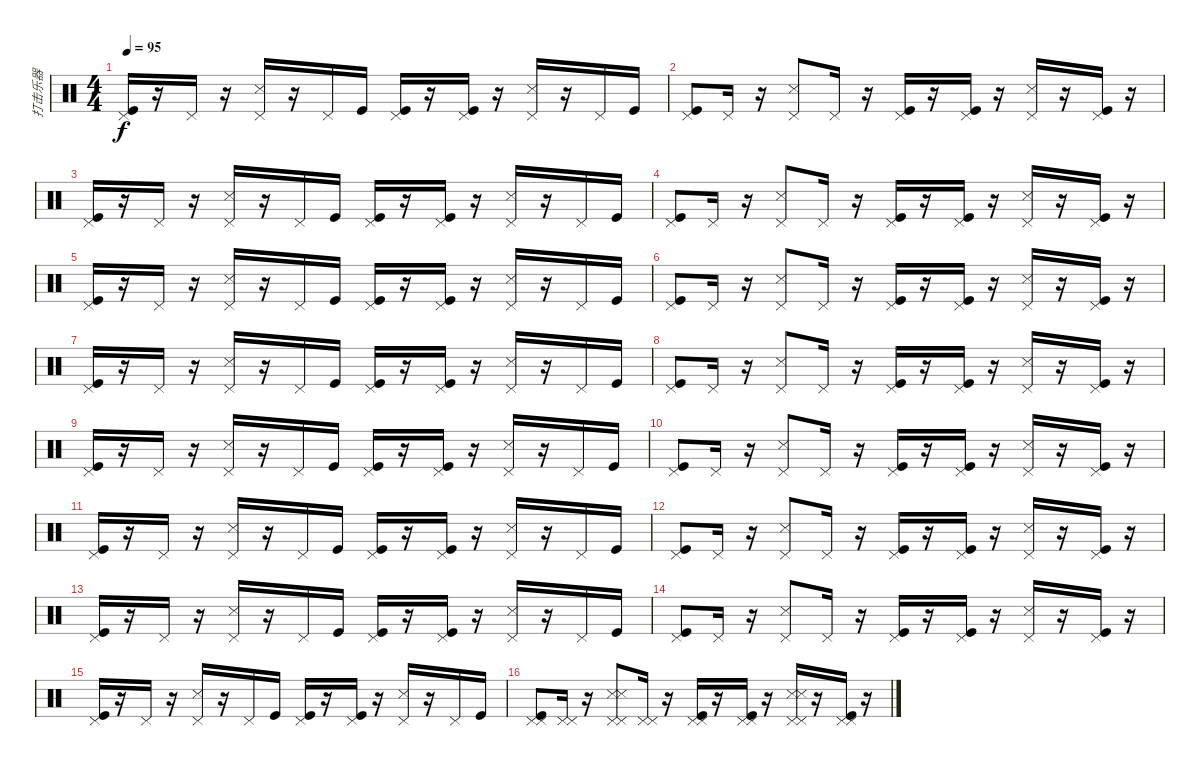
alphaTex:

\track ("打击乐器" "打击乐器") {instrument percussion}
\staff {score}
\articulation defaults
\ts (4 4)
\tempo 95
\clef neutral
\ks c
("Pedal Hi-Hat (hit)" "Kick (hit)").16{dy f} r.16 "Pedal Hi-Hat (hit)".16 r.16 ("Pedal Hi-Hat (hit)" "Snare (side stick) 3").16 r.16 "Pedal Hi-Hat (hit)".16 "Kick (hit)".16 ("Pedal Hi-Hat (hit)" "Kick (hit)").16 r.16 ("Pedal Hi-Hat (hit)" "Kick (hit)").16 r.16 ("Pedal Hi-Hat (hit)" "Snare (side stick) 3").16 r.16 "Pedal Hi-Hat (hit)".16 "Kick (hit)".16 |
("Pedal Hi-Hat (hit)" "Kick (hit)").8 "Pedal Hi-Hat (hit)".16 r.16 ("Pedal Hi-Hat (hit)" "Snare (side stick) 3").8 "Pedal Hi-Hat (hit)".16 r.16 ("Kick (hit)" "Pedal Hi-Hat (hit)").16 r.16 ("Kick (hit)" "Pedal Hi-Hat (hit)").16 r.16 ("Snare (side stick) 3" "Pedal Hi-Hat (hit)").16 r.16 ("Kick (hit)" "Pedal Hi-Hat (hit)").16 r.16 |
("Pedal Hi-Hat (hit)" "Kick (hit)").16 r.16 "Pedal Hi-Hat (hit)".16 r.16 ("Pedal Hi-Hat (hit)" "Snare (side stick) 3").16 r.16 "Pedal Hi-Hat (hit)".16 "Kick (hit)".16 ("Pedal Hi-Hat (hit)" "Kick (hit)").16 r.16 ("Pedal Hi-Hat (hit)" "Kick (hit)").16 r.16 ("Pedal Hi-Hat (hit)" "Snare (side stick) 3").16 r.16 "Pedal Hi-Hat (hit)".16 "Kick (hit)".16 |
("Pedal Hi-Hat (hit)" "Kick (hit)").8 "Pedal Hi-Hat (hit)".16 r.16 ("Pedal Hi-Hat (hit)" "Snare (side stick) 3").8 "Pedal Hi-Hat (hit)".16 r.16 ("Kick (hit)" "Pedal Hi-Hat (hit)").16 r.16 ("Kick (hit)" "Pedal Hi-Hat (hit)").16 r.16 ("Snare (side stick) 3" "Pedal Hi-Hat (hit)").16 r.16 ("Kick (hit)" "Pedal Hi-Hat (hit)").16 r.16 |
("Pedal Hi-Hat (hit)" "Kick (hit)").16 r.16 "Pedal Hi-Hat (hit)".16 r.16 ("Pedal Hi-Hat (hit)" "Snare (side stick) 3").16 r.16 "Pedal Hi-Hat (hit)".16 "Kick (hit)".16 ("Pedal Hi-Hat (hit)" "Kick (hit)").16 r.16 ("Pedal Hi-Hat (hit)" "Kick (hit)").16 r.16 ("Pedal Hi-Hat (hit)" "Snare (side stick) 3").16 r.16 "Pedal Hi-Hat (hit)".16 "Kick (hit)".16 |
("Pedal Hi-Hat (hit)" "Kick (hit)").8 "Pedal Hi-Hat (hit)".16 r.16 ("Pedal Hi-Hat (hit)" "Snare (side stick) 3").8 "Pedal Hi-Hat (hit)".16 r.16 ("Kick (hit)" "Pedal Hi-Hat (hit)").16 r.16 ("Kick (hit)" "Pedal Hi-Hat (hit)").16 r.16 ("Snare (side stick) 3" "Pedal Hi-Hat (hit)").16 r.16 ("Kick (hit)" "Pedal Hi-Hat (hit)").16 r.16 |
("Pedal Hi-Hat (hit)" "Kick (hit)").16 r.16 "Pedal Hi-Hat (hit)".16 r.16 ("Pedal Hi-Hat (hit)" "Snare (side stick) 3").16 r.16 "Pedal Hi-Hat (hit)".16 "Kick (hit)".16 ("Pedal Hi-Hat (hit)" "Kick (hit)").16 r.16 ("Pedal Hi-Hat (hit)" "Kick (hit)").16 r.16 ("Pedal Hi-Hat (hit)" "Snare (side stick) 3").16 r.16 "Pedal Hi-Hat (hit)".16 "Kick (hit)".16 |
("Pedal Hi-Hat (hit)" "Kick (hit)").8 "Pedal Hi-Hat (hit)".16 r.16 ("Pedal Hi-Hat (hit)" "Snare (side stick) 3").8 "Pedal Hi-Hat (hit)".16 r.16 ("Kick (hit)" "Pedal Hi-Hat (hit)").16 r.16 ("Kick (hit)" "Pedal Hi-Hat (hit)").16 r.16 ("Snare (side stick) 3" "Pedal Hi-Hat (hit)").16 r.16 ("Kick (hit)" "Pedal Hi-Hat (hit)").16 r.16 |
("Pedal Hi-Hat (hit)" "Kick (hit)").16 r.16 "Pedal Hi-Hat (hit)".16 r.16 ("Pedal Hi-Hat (hit)" "Snare (side stick) 3").16 r.16 "Pedal Hi-Hat (hit)".16 "Kick (hit)".16 ("Pedal Hi-Hat (hit)" "Kick (hit)").16 r.16 ("Pedal Hi-Hat (hit)" "Kick (hit)").16 r.16 ("Pedal Hi-Hat (hit)" "Snare (side stick) 3").16 r.16 "Pedal Hi-Hat (hit)".16 "Kick (hit)".16 |
("Pedal Hi-Hat (hit)" "Kick (hit)").8 "Pedal Hi-Hat (hit)".16 r.16 ("Pedal Hi-Hat (hit)" "Snare (side stick) 3").8 "Pedal Hi-Hat (hit)".16 r.16 ("Kick (hit)" "Pedal Hi-Hat (hit)").16 r.16 ("Kick (hit)" "Pedal Hi-Hat (hit)").16 r.16 ("Snare (side stick) 3" "Pedal Hi-Hat (hit)").16 r.16 ("Kick (hit)" "Pedal Hi-Hat (hit)").16 r.16 |
("Pedal Hi-Hat (hit)" "Kick (hit)").16 r.16 "Pedal Hi-Hat (hit)".16 r.16 ("Pedal Hi-Hat (hit)" "Snare (side stick) 3").16 r.16 "Pedal Hi-Hat (hit)".16 "Kick (hit)".16 ("Pedal Hi-Hat (hit)" "Kick (hit)").16 r.16 ("Pedal Hi-Hat (hit)" "Kick (hit)").16 r.16 ("Pedal Hi-Hat (hit)" "Snare (side stick) 3").16 r.16 "Pedal Hi-Hat (hit)".16 "Kick (hit)".16 |
("Pedal Hi-Hat (hit)" "Kick (hit)").8 "Pedal Hi-Hat (hit)".16 r.16 ("Pedal Hi-Hat (hit)" "Snare (side stick) 3").8 "Pedal Hi-Hat (hit)".16 r.16 ("Kick (hit)" "Pedal Hi-Hat (hit)").16 r.16 ("Kick (hit)" "Pedal Hi-Hat (hit)").16 r.16 ("Snare (side stick) 3" "Pedal Hi-Hat (hit)").16 r.16 ("Kick (hit)" "Pedal Hi-Hat (hit)").16 r.16 |
("Pedal Hi-Hat (hit)" "Kick (hit)").16 r.16 "Pedal Hi-Hat (hit)".16 r.16 ("Pedal Hi-Hat (hit)" "Snare (side stick) 3").16 r.16 "Pedal Hi-Hat (hit)".16 "Kick (hit)".16 ("Pedal Hi-Hat (hit)" "Kick (hit)").16 r.16 ("Pedal Hi-Hat (hit)" "Kick (hit)").16 r.16 ("Pedal Hi-Hat (hit)" "Snare (side stick) 3").16 r.16 "Pedal Hi-Hat (hit)".16 "Kick (hit)".16 |
("Pedal Hi-Hat (hit)" "Kick (hit)").8 "Pedal Hi-Hat (hit)".16 r.16 ("Pedal Hi-Hat (hit)" "Snare (side stick) 3").8 "Pedal Hi-Hat (hit)".16 r.16 ("Kick (hit)" "Pedal Hi-Hat (hit)").16 r.16 ("Kick (hit)" "Pedal Hi-Hat (hit)").16 r.16 ("Snare (side stick) 3" "Pedal Hi-Hat (hit)").16 r.16 ("Kick (hit)" "Pedal Hi-Hat (hit)").16 r.16 |
("Pedal Hi-Hat (hit)" "Kick (hit)").16 r.16 "Pedal Hi-Hat (hit)".16 r.16 ("Pedal Hi-Hat (hit)" "Snare (side stick) 3").16 r.16 "Pedal Hi-Hat (hit)".16 "Kick (hit)".16 ("Pedal Hi-Hat (hit)" "Kick (hit)").16 r.16 ("Pedal Hi-Hat (hit)" "Kick (hit)").16 r.16 ("Pedal Hi-Hat (hit)" "Snare (side stick) 3").16 r.16 "Pedal Hi-Hat (hit)".16 "Kick (hit)".16 |
("Pedal Hi-Hat (hit)" "Kick (hit)" "Pedal Hi-Hat (hit)").8 ("Pedal Hi-Hat (hit)" "Pedal Hi-Hat (hit)").16 r.16 ("Pedal Hi-Hat (hit)" "Snare (side stick) 3" "Pedal Hi-Hat (hit)" "Snare (side stick) 3").8 ("Pedal Hi-Hat (hit)" "Pedal Hi-Hat (hit)").16 r.16 ("Kick (hit)" "Pedal Hi-Hat (hit)" "Pedal Hi-Hat (hit)").16 r.16 ("Kick (hit)" "Pedal Hi-Hat (hit)" "Pedal Hi-Hat (hit)").16 r.16 ("Snare (side stick) 3" "Pedal Hi-Hat (hit)" "Snare (side stick) 3" "Pedal Hi-Hat (hit)").16 r.16 ("Kick (hit)" "Pedal Hi-Hat (hit)" "Pedal Hi-Hat (hit)").16 r.16
